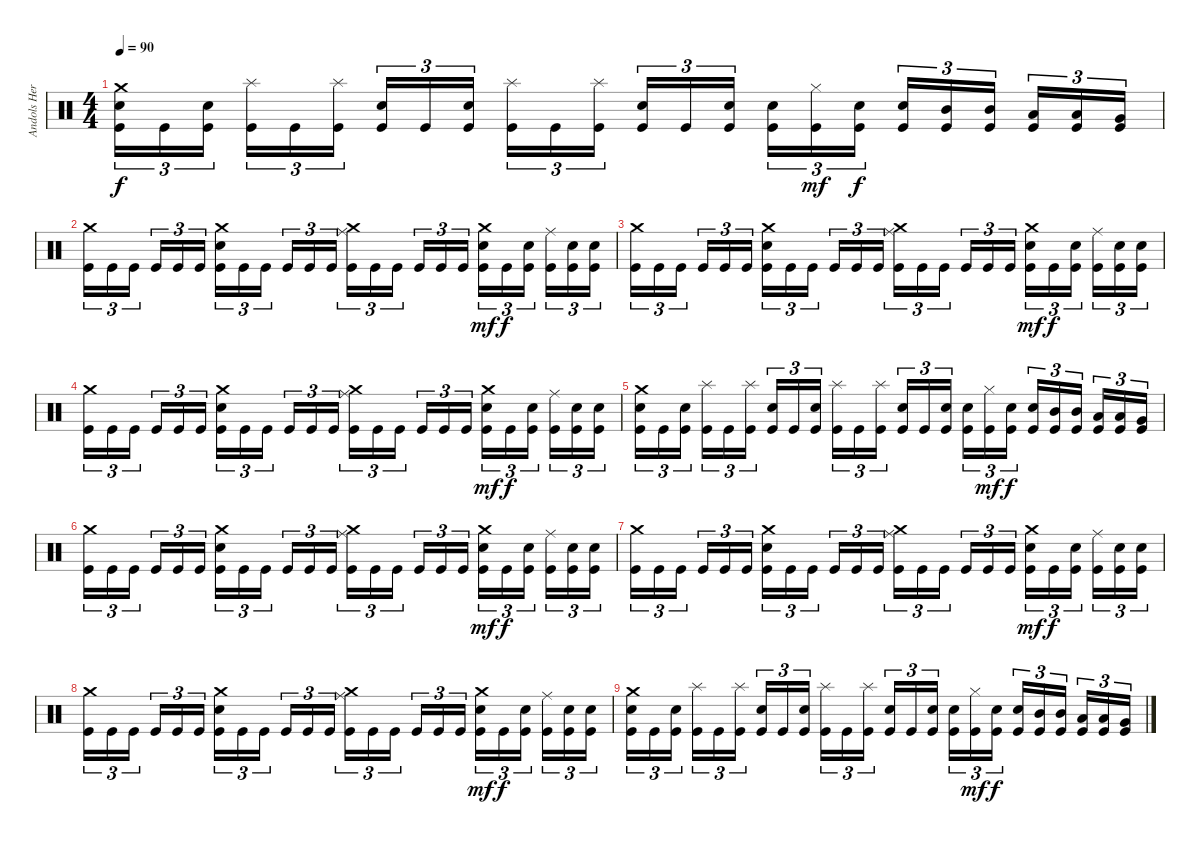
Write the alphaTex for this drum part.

\track ("Andols Herrick" "Andols Her") {instrument percussion}
\staff
\articulation defaults
\ts (4 4)
\tempo 90
\clef neutral
\ks c
("Crash medium (hit)" "Electric Snare (hit)" "Kick (hit)").16{tu (3 2) dy f} "Kick (hit)".16{tu (3 2)} ("Electric Snare (hit)" "Kick (hit)").16{tu (3 2) beam splitsecondary} ("Splash (hit)" "Kick (hit)").16{tu (3 2)} "Kick (hit)".16{tu (3 2)} ("Splash (hit)" "Kick (hit)").16{tu (3 2)} ("Electric Snare (hit)" "Kick (hit)").16{tu (3 2)} "Kick (hit)".16{tu (3 2)} ("Electric Snare (hit)" "Kick (hit)").16{tu (3 2) beam splitsecondary} ("Splash (hit)" "Kick (hit)").16{tu (3 2)} "Kick (hit)".16{tu (3 2)} ("Splash (hit)" "Kick (hit)").16{tu (3 2)} ("Electric Snare (hit)" "Kick (hit)").16{tu (3 2)} "Kick (hit)".16{tu (3 2)} ("Electric Snare (hit)" "Kick (hit)").16{tu (3 2) beam splitsecondary} ("Electric Snare (hit)" "Kick (hit)").16{tu (3 2)} ("Hi-Hat (closed)" "Kick (hit)").16{tu (3 2) dy mf} ("Electric Snare (hit)" "Kick (hit)").16{tu (3 2) dy f} ("Electric Snare (hit)" "Kick (hit)").16{tu (3 2)} ("Mid Tom (hit)" "Kick (hit)").16{tu (3 2)} ("Mid Tom (hit)" "Kick (hit)").16{tu (3 2) beam splitsecondary} ("Low Tom (hit)" "Kick (hit)").16{tu (3 2)} ("Low Tom (hit)" "Kick (hit)").16{tu (3 2)} ("Very Low Tom (hit)" "Kick (hit)").16{tu (3 2)} |
("Crash medium (hit)" "Kick (hit)").16{tu (3 2)} "Kick (hit)".16{tu (3 2)} "Kick (hit)".16{tu (3 2) beam splitsecondary} "Kick (hit)".16{tu (3 2)} "Kick (hit)".16{tu (3 2)} "Kick (hit)".16{tu (3 2)} ("Crash medium (hit)" "Electric Snare (hit)" "Kick (hit)").16{tu (3 2)} "Kick (hit)".16{tu (3 2)} "Kick (hit)".16{tu (3 2) beam splitsecondary} "Kick (hit)".16{tu (3 2)} "Kick (hit)".16{tu (3 2)} "Kick (hit)".16{tu (3 2)} ("Crash medium (hit)" "Ride (middle)" "Kick (hit)").16{tu (3 2)} "Kick (hit)".16{tu (3 2)} "Kick (hit)".16{tu (3 2) beam splitsecondary} "Kick (hit)".16{tu (3 2)} "Kick (hit)".16{tu (3 2)} "Kick (hit)".16{tu (3 2)} ("Crash medium (hit)" "Electric Snare (hit)" "Kick (hit)").16{tu (3 2) dy mf} "Kick (hit)".16{tu (3 2) dy f} ("Electric Snare (hit)" "Kick (hit)").16{tu (3 2) beam splitsecondary} ("Ride (middle)" "Kick (hit)").16{tu (3 2)} ("Electric Snare (hit)" "Kick (hit)").16{tu (3 2)} ("Electric Snare (hit)" "Kick (hit)").16{tu (3 2)} |
("Crash medium (hit)" "Kick (hit)").16{tu (3 2)} "Kick (hit)".16{tu (3 2)} "Kick (hit)".16{tu (3 2) beam splitsecondary} "Kick (hit)".16{tu (3 2)} "Kick (hit)".16{tu (3 2)} "Kick (hit)".16{tu (3 2)} ("Crash medium (hit)" "Electric Snare (hit)" "Kick (hit)").16{tu (3 2)} "Kick (hit)".16{tu (3 2)} "Kick (hit)".16{tu (3 2) beam splitsecondary} "Kick (hit)".16{tu (3 2)} "Kick (hit)".16{tu (3 2)} "Kick (hit)".16{tu (3 2)} ("Crash medium (hit)" "Ride (middle)" "Kick (hit)").16{tu (3 2)} "Kick (hit)".16{tu (3 2)} "Kick (hit)".16{tu (3 2) beam splitsecondary} "Kick (hit)".16{tu (3 2)} "Kick (hit)".16{tu (3 2)} "Kick (hit)".16{tu (3 2)} ("Crash medium (hit)" "Electric Snare (hit)" "Kick (hit)").16{tu (3 2) dy mf} "Kick (hit)".16{tu (3 2) dy f} ("Electric Snare (hit)" "Kick (hit)").16{tu (3 2) beam splitsecondary} ("Ride (middle)" "Kick (hit)").16{tu (3 2)} ("Electric Snare (hit)" "Kick (hit)").16{tu (3 2)} ("Electric Snare (hit)" "Kick (hit)").16{tu (3 2)} |
("Crash medium (hit)" "Kick (hit)").16{tu (3 2)} "Kick (hit)".16{tu (3 2)} "Kick (hit)".16{tu (3 2) beam splitsecondary} "Kick (hit)".16{tu (3 2)} "Kick (hit)".16{tu (3 2)} "Kick (hit)".16{tu (3 2)} ("Crash medium (hit)" "Electric Snare (hit)" "Kick (hit)").16{tu (3 2)} "Kick (hit)".16{tu (3 2)} "Kick (hit)".16{tu (3 2) beam splitsecondary} "Kick (hit)".16{tu (3 2)} "Kick (hit)".16{tu (3 2)} "Kick (hit)".16{tu (3 2)} ("Crash medium (hit)" "Ride (middle)" "Kick (hit)").16{tu (3 2)} "Kick (hit)".16{tu (3 2)} "Kick (hit)".16{tu (3 2) beam splitsecondary} "Kick (hit)".16{tu (3 2)} "Kick (hit)".16{tu (3 2)} "Kick (hit)".16{tu (3 2)} ("Crash medium (hit)" "Electric Snare (hit)" "Kick (hit)").16{tu (3 2) dy mf} "Kick (hit)".16{tu (3 2) dy f} ("Electric Snare (hit)" "Kick (hit)").16{tu (3 2) beam splitsecondary} ("Ride (middle)" "Kick (hit)").16{tu (3 2)} ("Electric Snare (hit)" "Kick (hit)").16{tu (3 2)} ("Electric Snare (hit)" "Kick (hit)").16{tu (3 2)} |
("Crash medium (hit)" "Electric Snare (hit)" "Kick (hit)").16{tu (3 2)} "Kick (hit)".16{tu (3 2)} ("Electric Snare (hit)" "Kick (hit)").16{tu (3 2) beam splitsecondary} ("Splash (hit)" "Kick (hit)").16{tu (3 2)} "Kick (hit)".16{tu (3 2)} ("Splash (hit)" "Kick (hit)").16{tu (3 2)} ("Electric Snare (hit)" "Kick (hit)").16{tu (3 2)} "Kick (hit)".16{tu (3 2)} ("Electric Snare (hit)" "Kick (hit)").16{tu (3 2) beam splitsecondary} ("Splash (hit)" "Kick (hit)").16{tu (3 2)} "Kick (hit)".16{tu (3 2)} ("Splash (hit)" "Kick (hit)").16{tu (3 2)} ("Electric Snare (hit)" "Kick (hit)").16{tu (3 2)} "Kick (hit)".16{tu (3 2)} ("Electric Snare (hit)" "Kick (hit)").16{tu (3 2) beam splitsecondary} ("Electric Snare (hit)" "Kick (hit)").16{tu (3 2)} ("Hi-Hat (closed)" "Kick (hit)").16{tu (3 2) dy mf} ("Electric Snare (hit)" "Kick (hit)").16{tu (3 2) dy f} ("Electric Snare (hit)" "Kick (hit)").16{tu (3 2)} ("Mid Tom (hit)" "Kick (hit)").16{tu (3 2)} ("Mid Tom (hit)" "Kick (hit)").16{tu (3 2) beam splitsecondary} ("Low Tom (hit)" "Kick (hit)").16{tu (3 2)} ("Low Tom (hit)" "Kick (hit)").16{tu (3 2)} ("Very Low Tom (hit)" "Kick (hit)").16{tu (3 2)} |
("Crash medium (hit)" "Kick (hit)").16{tu (3 2)} "Kick (hit)".16{tu (3 2)} "Kick (hit)".16{tu (3 2) beam splitsecondary} "Kick (hit)".16{tu (3 2)} "Kick (hit)".16{tu (3 2)} "Kick (hit)".16{tu (3 2)} ("Crash medium (hit)" "Electric Snare (hit)" "Kick (hit)").16{tu (3 2)} "Kick (hit)".16{tu (3 2)} "Kick (hit)".16{tu (3 2) beam splitsecondary} "Kick (hit)".16{tu (3 2)} "Kick (hit)".16{tu (3 2)} "Kick (hit)".16{tu (3 2)} ("Crash medium (hit)" "Ride (middle)" "Kick (hit)").16{tu (3 2)} "Kick (hit)".16{tu (3 2)} "Kick (hit)".16{tu (3 2) beam splitsecondary} "Kick (hit)".16{tu (3 2)} "Kick (hit)".16{tu (3 2)} "Kick (hit)".16{tu (3 2)} ("Crash medium (hit)" "Electric Snare (hit)" "Kick (hit)").16{tu (3 2) dy mf} "Kick (hit)".16{tu (3 2) dy f} ("Electric Snare (hit)" "Kick (hit)").16{tu (3 2) beam splitsecondary} ("Ride (middle)" "Kick (hit)").16{tu (3 2)} ("Electric Snare (hit)" "Kick (hit)").16{tu (3 2)} ("Electric Snare (hit)" "Kick (hit)").16{tu (3 2)} |
("Crash medium (hit)" "Kick (hit)").16{tu (3 2)} "Kick (hit)".16{tu (3 2)} "Kick (hit)".16{tu (3 2) beam splitsecondary} "Kick (hit)".16{tu (3 2)} "Kick (hit)".16{tu (3 2)} "Kick (hit)".16{tu (3 2)} ("Crash medium (hit)" "Electric Snare (hit)" "Kick (hit)").16{tu (3 2)} "Kick (hit)".16{tu (3 2)} "Kick (hit)".16{tu (3 2) beam splitsecondary} "Kick (hit)".16{tu (3 2)} "Kick (hit)".16{tu (3 2)} "Kick (hit)".16{tu (3 2)} ("Crash medium (hit)" "Ride (middle)" "Kick (hit)").16{tu (3 2)} "Kick (hit)".16{tu (3 2)} "Kick (hit)".16{tu (3 2) beam splitsecondary} "Kick (hit)".16{tu (3 2)} "Kick (hit)".16{tu (3 2)} "Kick (hit)".16{tu (3 2)} ("Crash medium (hit)" "Electric Snare (hit)" "Kick (hit)").16{tu (3 2) dy mf} "Kick (hit)".16{tu (3 2) dy f} ("Electric Snare (hit)" "Kick (hit)").16{tu (3 2) beam splitsecondary} ("Ride (middle)" "Kick (hit)").16{tu (3 2)} ("Electric Snare (hit)" "Kick (hit)").16{tu (3 2)} ("Electric Snare (hit)" "Kick (hit)").16{tu (3 2)} |
("Crash medium (hit)" "Kick (hit)").16{tu (3 2)} "Kick (hit)".16{tu (3 2)} "Kick (hit)".16{tu (3 2) beam splitsecondary} "Kick (hit)".16{tu (3 2)} "Kick (hit)".16{tu (3 2)} "Kick (hit)".16{tu (3 2)} ("Crash medium (hit)" "Electric Snare (hit)" "Kick (hit)").16{tu (3 2)} "Kick (hit)".16{tu (3 2)} "Kick (hit)".16{tu (3 2) beam splitsecondary} "Kick (hit)".16{tu (3 2)} "Kick (hit)".16{tu (3 2)} "Kick (hit)".16{tu (3 2)} ("Crash medium (hit)" "Ride (middle)" "Kick (hit)").16{tu (3 2)} "Kick (hit)".16{tu (3 2)} "Kick (hit)".16{tu (3 2) beam splitsecondary} "Kick (hit)".16{tu (3 2)} "Kick (hit)".16{tu (3 2)} "Kick (hit)".16{tu (3 2)} ("Crash medium (hit)" "Electric Snare (hit)" "Kick (hit)").16{tu (3 2) dy mf} "Kick (hit)".16{tu (3 2) dy f} ("Electric Snare (hit)" "Kick (hit)").16{tu (3 2) beam splitsecondary} ("Ride (middle)" "Kick (hit)").16{tu (3 2)} ("Electric Snare (hit)" "Kick (hit)").16{tu (3 2)} ("Electric Snare (hit)" "Kick (hit)").16{tu (3 2)} |
("Crash medium (hit)" "Electric Snare (hit)" "Kick (hit)").16{tu (3 2)} "Kick (hit)".16{tu (3 2)} ("Electric Snare (hit)" "Kick (hit)").16{tu (3 2) beam splitsecondary} ("Splash (hit)" "Kick (hit)").16{tu (3 2)} "Kick (hit)".16{tu (3 2)} ("Splash (hit)" "Kick (hit)").16{tu (3 2)} ("Electric Snare (hit)" "Kick (hit)").16{tu (3 2)} "Kick (hit)".16{tu (3 2)} ("Electric Snare (hit)" "Kick (hit)").16{tu (3 2) beam splitsecondary} ("Splash (hit)" "Kick (hit)").16{tu (3 2)} "Kick (hit)".16{tu (3 2)} ("Splash (hit)" "Kick (hit)").16{tu (3 2)} ("Electric Snare (hit)" "Kick (hit)").16{tu (3 2)} "Kick (hit)".16{tu (3 2)} ("Electric Snare (hit)" "Kick (hit)").16{tu (3 2) beam splitsecondary} ("Electric Snare (hit)" "Kick (hit)").16{tu (3 2)} ("Hi-Hat (closed)" "Kick (hit)").16{tu (3 2) dy mf} ("Electric Snare (hit)" "Kick (hit)").16{tu (3 2) dy f} ("Electric Snare (hit)" "Kick (hit)").16{tu (3 2)} ("Mid Tom (hit)" "Kick (hit)").16{tu (3 2)} ("Mid Tom (hit)" "Kick (hit)").16{tu (3 2) beam splitsecondary} ("Low Tom (hit)" "Kick (hit)").16{tu (3 2)} ("Low Tom (hit)" "Kick (hit)").16{tu (3 2)} ("Very Low Tom (hit)" "Kick (hit)").16{tu (3 2)}
